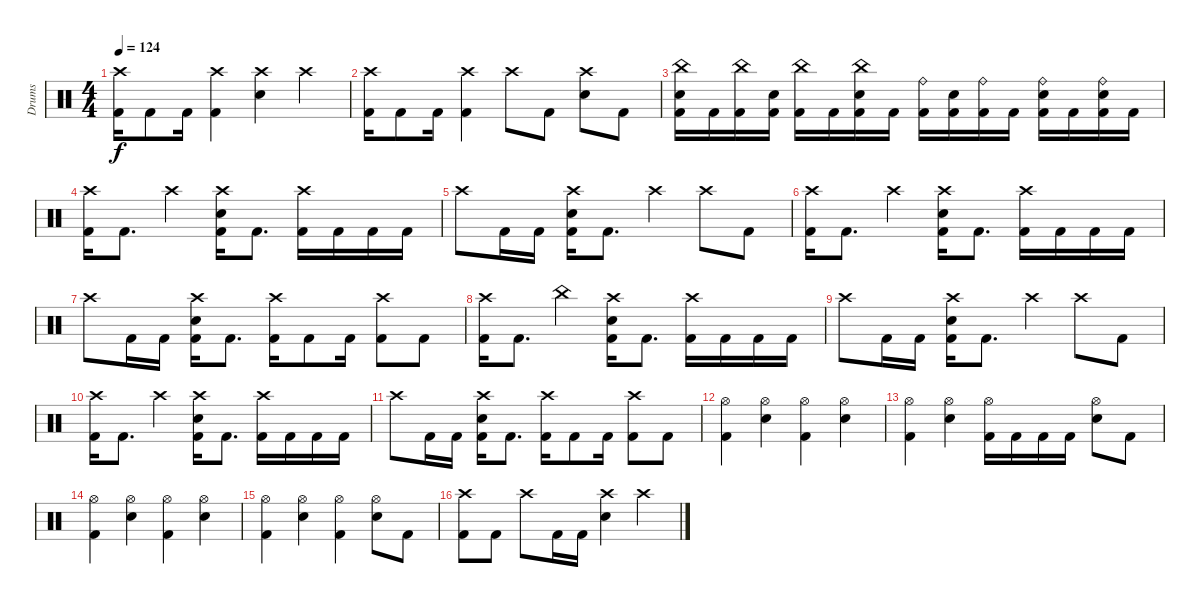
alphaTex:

\track ("Drums" "Drums") {instrument percussion}
\staff {score}
\articulation defaults
\ts (4 4)
\tempo 124
\clef neutral
\ks c
("Crash high (hit)" "Kick (hit) 2").16{dy f} "Kick (hit) 2".8 "Kick (hit) 2".16 ("Crash high (hit)" "Kick (hit) 2").4 ("Crash high (hit)" "Snare (hit) 2").4 "Crash high (hit)".4 |
("Crash high (hit)" "Kick (hit) 2").16 "Kick (hit) 2".8 "Kick (hit) 2".16 ("Crash high (hit)" "Kick (hit) 2").4 "Crash high (hit)".8 "Kick (hit) 2".8 ("Crash high (hit)" "Snare (hit) 2").8 "Kick (hit) 2".8 |
("China (hit)" "Snare (hit) 2" "Kick (hit) 2").16 "Kick (hit) 2".16 ("China (hit)" "Kick (hit) 2").16 ("Snare (hit) 2" "Kick (hit) 2").16 ("China (hit)" "Kick (hit) 2").16 "Kick (hit) 2".16 ("China (hit)" "Snare (hit) 2" "Kick (hit) 2").16 "Kick (hit) 2".16 ("Ride (bell)" "Kick (hit) 2").16 ("Snare (hit) 2" "Kick (hit) 2").16 ("Ride (bell)" "Kick (hit) 2").16 "Kick (hit) 2".16 ("Ride (bell)" "Snare (hit) 2" "Kick (hit) 2").16 "Kick (hit) 2".16 ("Ride (bell)" "Snare (hit) 2" "Kick (hit) 2").16 "Kick (hit) 2".16 |
("Crash high (hit)" "Kick (hit) 2").16 "Kick (hit) 2".8{d} "Crash high (hit)".4 ("Crash high (hit)" "Snare (hit) 2" "Kick (hit) 2").16 "Kick (hit) 2".8{d} ("Crash high (hit)" "Kick (hit) 2").16 "Kick (hit) 2".16 "Kick (hit) 2".16 "Kick (hit) 2".16 |
"Crash high (hit)".8 "Kick (hit) 2".16 "Kick (hit) 2".16 ("Crash high (hit)" "Snare (hit) 2" "Kick (hit) 2").16 "Kick (hit) 2".8{d} "Crash high (hit)".4 "Crash high (hit)".8 "Kick (hit) 2".8 |
("Crash high (hit)" "Kick (hit) 2").16 "Kick (hit) 2".8{d} "Crash high (hit)".4 ("Crash high (hit)" "Snare (hit) 2" "Kick (hit) 2").16 "Kick (hit) 2".8{d} ("Crash high (hit)" "Kick (hit) 2").16 "Kick (hit) 2".16 "Kick (hit) 2".16 "Kick (hit) 2".16 |
"Crash high (hit)".8 "Kick (hit) 2".16 "Kick (hit) 2".16 ("Crash high (hit)" "Snare (hit) 2" "Kick (hit) 2").16 "Kick (hit) 2".8{d} ("Crash high (hit)" "Kick (hit) 2").16 "Kick (hit) 2".8 "Kick (hit) 2".16 ("Crash high (hit)" "Kick (hit) 2").8 "Kick (hit) 2".8 |
("Crash high (hit)" "Kick (hit) 2").16 "Kick (hit) 2".8{d} "China (hit)".4 ("Crash high (hit)" "Snare (hit) 2" "Kick (hit) 2").16 "Kick (hit) 2".8{d} ("Crash high (hit)" "Kick (hit) 2").16 "Kick (hit) 2".16 "Kick (hit) 2".16 "Kick (hit) 2".16 |
"Crash high (hit)".8 "Kick (hit) 2".16 "Kick (hit) 2".16 ("Crash high (hit)" "Snare (hit) 2" "Kick (hit) 2").16 "Kick (hit) 2".8{d} "Crash high (hit)".4 "Crash high (hit)".8 "Kick (hit) 2".8 |
("Crash high (hit)" "Kick (hit) 2").16 "Kick (hit) 2".8{d} "Crash high (hit)".4 ("Crash high (hit)" "Snare (hit) 2" "Kick (hit) 2").16 "Kick (hit) 2".8{d} ("Crash high (hit)" "Kick (hit) 2").16 "Kick (hit) 2".16 "Kick (hit) 2".16 "Kick (hit) 2".16 |
"Crash high (hit)".8 "Kick (hit) 2".16 "Kick (hit) 2".16 ("Crash high (hit)" "Snare (hit) 2" "Kick (hit) 2").16 "Kick (hit) 2".8{d} ("Crash high (hit)" "Kick (hit) 2").16 "Kick (hit) 2".8 "Kick (hit) 2".16 ("Crash high (hit)" "Kick (hit) 2").8 "Kick (hit) 2".8 |
("Hi-Hat (open)" "Kick (hit) 2").4 ("Hi-Hat (open)" "Snare (hit) 2").4 ("Hi-Hat (open)" "Kick (hit) 2").4 ("Hi-Hat (open)" "Snare (hit) 2").4 |
("Hi-Hat (open)" "Kick (hit) 2").4 ("Hi-Hat (open)" "Snare (hit) 2").4 ("Hi-Hat (open)" "Kick (hit) 2").16 "Kick (hit) 2".16 "Kick (hit) 2".16 "Kick (hit) 2".16 ("Hi-Hat (open)" "Snare (hit) 2").8 "Kick (hit) 2".8 |
("Hi-Hat (open)" "Kick (hit) 2").4 ("Hi-Hat (open)" "Snare (hit) 2").4 ("Hi-Hat (open)" "Kick (hit) 2").4 ("Hi-Hat (open)" "Snare (hit) 2").4 |
("Hi-Hat (open)" "Kick (hit) 2").4 ("Hi-Hat (open)" "Snare (hit) 2").4 ("Hi-Hat (open)" "Kick (hit) 2").4 ("Hi-Hat (open)" "Snare (hit) 2").8 "Kick (hit) 2".8 |
("Crash high (hit)" "Kick (hit) 2").8 "Kick (hit) 2".8 "Crash high (hit)".8 "Kick (hit) 2".16 "Kick (hit) 2".16 ("Crash high (hit)" "Snare (hit) 2").4 "Crash high (hit)".4
